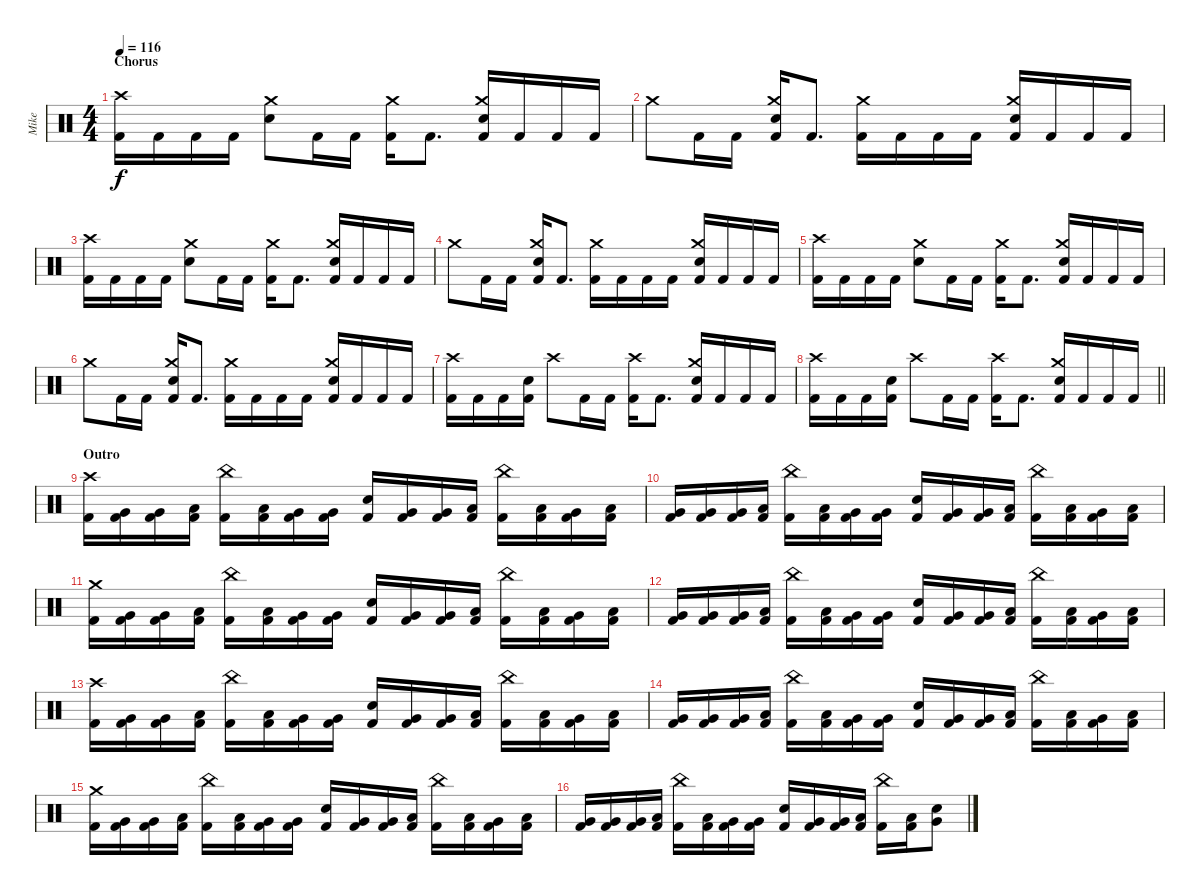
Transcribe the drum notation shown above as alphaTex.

\track ("Mike" "Mike") {instrument percussion}
\staff {score}
\articulation defaults
\ts (4 4)
\section ("" "Chorus")
\tempo 116
\clef neutral
\ks c
("Crash high (hit)" "Kick (hit) 2").16{dy f} "Kick (hit) 2".16 "Kick (hit) 2".16 "Kick (hit) 2".16 ("Crash medium (hit)" "Snare (hit) 2").8 "Kick (hit) 2".16 "Kick (hit) 2".16 ("Crash medium (hit)" "Kick (hit) 2").16 "Kick (hit) 2".8{d} ("Crash medium (hit)" "Snare (hit) 2" "Kick (hit) 2").16 "Kick (hit) 2".16 "Kick (hit) 2".16 "Kick (hit) 2".16 |
"Crash medium (hit)".8 "Kick (hit) 2".16 "Kick (hit) 2".16 ("Crash medium (hit)" "Snare (hit) 2" "Kick (hit) 2").16 "Kick (hit) 2".8{d} ("Crash medium (hit)" "Kick (hit) 2").16 "Kick (hit) 2".16 "Kick (hit) 2".16 "Kick (hit) 2".16 ("Crash medium (hit)" "Snare (hit) 2" "Kick (hit) 2").16 "Kick (hit) 2".16 "Kick (hit) 2".16 "Kick (hit) 2".16 |
("Crash high (hit)" "Kick (hit) 2").16 "Kick (hit) 2".16 "Kick (hit) 2".16 "Kick (hit) 2".16 ("Crash medium (hit)" "Snare (hit) 2").8 "Kick (hit) 2".16 "Kick (hit) 2".16 ("Crash medium (hit)" "Kick (hit) 2").16 "Kick (hit) 2".8{d} ("Crash medium (hit)" "Snare (hit) 2" "Kick (hit) 2").16 "Kick (hit) 2".16 "Kick (hit) 2".16 "Kick (hit) 2".16 |
"Crash medium (hit)".8 "Kick (hit) 2".16 "Kick (hit) 2".16 ("Crash medium (hit)" "Snare (hit) 2" "Kick (hit) 2").16 "Kick (hit) 2".8{d} ("Crash medium (hit)" "Kick (hit) 2").16 "Kick (hit) 2".16 "Kick (hit) 2".16 "Kick (hit) 2".16 ("Crash medium (hit)" "Snare (hit) 2" "Kick (hit) 2").16 "Kick (hit) 2".16 "Kick (hit) 2".16 "Kick (hit) 2".16 |
("Crash high (hit)" "Kick (hit) 2").16 "Kick (hit) 2".16 "Kick (hit) 2".16 "Kick (hit) 2".16 ("Crash medium (hit)" "Snare (hit) 2").8 "Kick (hit) 2".16 "Kick (hit) 2".16 ("Crash medium (hit)" "Kick (hit) 2").16 "Kick (hit) 2".8{d} ("Crash medium (hit)" "Snare (hit) 2" "Kick (hit) 2").16 "Kick (hit) 2".16 "Kick (hit) 2".16 "Kick (hit) 2".16 |
"Crash medium (hit)".8 "Kick (hit) 2".16 "Kick (hit) 2".16 ("Crash medium (hit)" "Snare (hit) 2" "Kick (hit) 2").16 "Kick (hit) 2".8{d} ("Crash medium (hit)" "Kick (hit) 2").16 "Kick (hit) 2".16 "Kick (hit) 2".16 "Kick (hit) 2".16 ("Crash medium (hit)" "Snare (hit) 2" "Kick (hit) 2").16 "Kick (hit) 2".16 "Kick (hit) 2".16 "Kick (hit) 2".16 |
("Crash high (hit)" "Kick (hit) 2").16 "Kick (hit) 2".16 "Kick (hit) 2".16 ("Snare (hit) 2" "Kick (hit) 2").16 "Crash high (hit)".8 "Kick (hit) 2".16 "Kick (hit) 2".16 ("Crash high (hit)" "Kick (hit) 2").16 "Kick (hit) 2".8{d} ("Crash medium (hit)" "Snare (hit) 2" "Kick (hit) 2").16 "Kick (hit) 2".16 "Kick (hit) 2".16 "Kick (hit) 2".16 |
\barLineRight lightlight
("Crash high (hit)" "Kick (hit) 2").16 "Kick (hit) 2".16 "Kick (hit) 2".16 ("Snare (hit) 2" "Kick (hit) 2").16 "Crash high (hit)".8 "Kick (hit) 2".16 "Kick (hit) 2".16 ("Crash high (hit)" "Kick (hit) 2").16 "Kick (hit) 2".8{d} ("Crash medium (hit)" "Snare (hit) 2" "Kick (hit) 2").16 "Kick (hit) 2".16 "Kick (hit) 2".16 "Kick (hit) 2".16 |
\section ("" "Outro")
("Crash high (hit)" "Kick (hit) 2").16 ("Very Low Tom (hit)" "Kick (hit) 2").16 ("Very Low Tom (hit)" "Kick (hit) 2").16 ("Low Tom (hit)" "Kick (hit) 2").16 ("China (hit)" "Kick (hit) 2").16 ("Low Tom (hit)" "Kick (hit) 2").16 ("Very Low Tom (hit)" "Kick (hit) 2").16 ("Very Low Tom (hit)" "Kick (hit) 2").16 ("Snare (hit) 2" "Kick (hit) 2").16 ("Very Low Tom (hit)" "Kick (hit) 2").16 ("Very Low Tom (hit)" "Kick (hit) 2").16 ("Low Tom (hit)" "Kick (hit) 2").16 ("China (hit)" "Kick (hit) 2").16 ("Low Tom (hit)" "Kick (hit) 2").16 ("Very Low Tom (hit)" "Kick (hit) 2").16 ("Low Tom (hit)" "Kick (hit) 2").16 |
("Very Low Tom (hit)" "Kick (hit) 2").16 ("Very Low Tom (hit)" "Kick (hit) 2").16 ("Very Low Tom (hit)" "Kick (hit) 2").16 ("Low Tom (hit)" "Kick (hit) 2").16 ("China (hit)" "Kick (hit) 2").16 ("Low Tom (hit)" "Kick (hit) 2").16 ("Very Low Tom (hit)" "Kick (hit) 2").16 ("Very Low Tom (hit)" "Kick (hit) 2").16 ("Snare (hit) 2" "Kick (hit) 2").16 ("Very Low Tom (hit)" "Kick (hit) 2").16 ("Very Low Tom (hit)" "Kick (hit) 2").16 ("Low Tom (hit)" "Kick (hit) 2").16 ("China (hit)" "Kick (hit) 2").16 ("Low Tom (hit)" "Kick (hit) 2").16 ("Very Low Tom (hit)" "Kick (hit) 2").16 ("Low Tom (hit)" "Kick (hit) 2").16 |
("Crash medium (hit)" "Kick (hit) 2").16 ("Very Low Tom (hit)" "Kick (hit) 2").16 ("Very Low Tom (hit)" "Kick (hit) 2").16 ("Low Tom (hit)" "Kick (hit) 2").16 ("China (hit)" "Kick (hit) 2").16 ("Low Tom (hit)" "Kick (hit) 2").16 ("Very Low Tom (hit)" "Kick (hit) 2").16 ("Very Low Tom (hit)" "Kick (hit) 2").16 ("Snare (hit) 2" "Kick (hit) 2").16 ("Very Low Tom (hit)" "Kick (hit) 2").16 ("Very Low Tom (hit)" "Kick (hit) 2").16 ("Low Tom (hit)" "Kick (hit) 2").16 ("China (hit)" "Kick (hit) 2").16 ("Low Tom (hit)" "Kick (hit) 2").16 ("Very Low Tom (hit)" "Kick (hit) 2").16 ("Low Tom (hit)" "Kick (hit) 2").16 |
("Very Low Tom (hit)" "Kick (hit) 2").16 ("Very Low Tom (hit)" "Kick (hit) 2").16 ("Very Low Tom (hit)" "Kick (hit) 2").16 ("Low Tom (hit)" "Kick (hit) 2").16 ("China (hit)" "Kick (hit) 2").16 ("Low Tom (hit)" "Kick (hit) 2").16 ("Very Low Tom (hit)" "Kick (hit) 2").16 ("Very Low Tom (hit)" "Kick (hit) 2").16 ("Snare (hit) 2" "Kick (hit) 2").16 ("Very Low Tom (hit)" "Kick (hit) 2").16 ("Very Low Tom (hit)" "Kick (hit) 2").16 ("Low Tom (hit)" "Kick (hit) 2").16 ("China (hit)" "Kick (hit) 2").16 ("Low Tom (hit)" "Kick (hit) 2").16 ("Very Low Tom (hit)" "Kick (hit) 2").16 ("Low Tom (hit)" "Kick (hit) 2").16 |
("Crash high (hit)" "Kick (hit) 2").16 ("Very Low Tom (hit)" "Kick (hit) 2").16 ("Very Low Tom (hit)" "Kick (hit) 2").16 ("Low Tom (hit)" "Kick (hit) 2").16 ("China (hit)" "Kick (hit) 2").16 ("Low Tom (hit)" "Kick (hit) 2").16 ("Very Low Tom (hit)" "Kick (hit) 2").16 ("Very Low Tom (hit)" "Kick (hit) 2").16 ("Snare (hit) 2" "Kick (hit) 2").16 ("Very Low Tom (hit)" "Kick (hit) 2").16 ("Very Low Tom (hit)" "Kick (hit) 2").16 ("Low Tom (hit)" "Kick (hit) 2").16 ("China (hit)" "Kick (hit) 2").16 ("Low Tom (hit)" "Kick (hit) 2").16 ("Very Low Tom (hit)" "Kick (hit) 2").16 ("Low Tom (hit)" "Kick (hit) 2").16 |
("Very Low Tom (hit)" "Kick (hit) 2").16 ("Very Low Tom (hit)" "Kick (hit) 2").16 ("Very Low Tom (hit)" "Kick (hit) 2").16 ("Low Tom (hit)" "Kick (hit) 2").16 ("China (hit)" "Kick (hit) 2").16 ("Low Tom (hit)" "Kick (hit) 2").16 ("Very Low Tom (hit)" "Kick (hit) 2").16 ("Very Low Tom (hit)" "Kick (hit) 2").16 ("Snare (hit) 2" "Kick (hit) 2").16 ("Very Low Tom (hit)" "Kick (hit) 2").16 ("Very Low Tom (hit)" "Kick (hit) 2").16 ("Low Tom (hit)" "Kick (hit) 2").16 ("China (hit)" "Kick (hit) 2").16 ("Low Tom (hit)" "Kick (hit) 2").16 ("Very Low Tom (hit)" "Kick (hit) 2").16 ("Low Tom (hit)" "Kick (hit) 2").16 |
("Crash medium (hit)" "Kick (hit) 2").16 ("Very Low Tom (hit)" "Kick (hit) 2").16 ("Very Low Tom (hit)" "Kick (hit) 2").16 ("Low Tom (hit)" "Kick (hit) 2").16 ("China (hit)" "Kick (hit) 2").16 ("Low Tom (hit)" "Kick (hit) 2").16 ("Very Low Tom (hit)" "Kick (hit) 2").16 ("Very Low Tom (hit)" "Kick (hit) 2").16 ("Snare (hit) 2" "Kick (hit) 2").16 ("Very Low Tom (hit)" "Kick (hit) 2").16 ("Very Low Tom (hit)" "Kick (hit) 2").16 ("Low Tom (hit)" "Kick (hit) 2").16 ("China (hit)" "Kick (hit) 2").16 ("Low Tom (hit)" "Kick (hit) 2").16 ("Very Low Tom (hit)" "Kick (hit) 2").16 ("Low Tom (hit)" "Kick (hit) 2").16 |
("Very Low Tom (hit)" "Kick (hit) 2").16 ("Very Low Tom (hit)" "Kick (hit) 2").16 ("Very Low Tom (hit)" "Kick (hit) 2").16 ("Low Tom (hit)" "Kick (hit) 2").16 ("China (hit)" "Kick (hit) 2").16 ("Low Tom (hit)" "Kick (hit) 2").16 ("Very Low Tom (hit)" "Kick (hit) 2").16 ("Very Low Tom (hit)" "Kick (hit) 2").16 ("Snare (hit) 2" "Kick (hit) 2").16 ("Very Low Tom (hit)" "Kick (hit) 2").16 ("Very Low Tom (hit)" "Kick (hit) 2").16 ("Low Tom (hit)" "Kick (hit) 2").16 ("China (hit)" "Kick (hit) 2").16 ("Low Tom (hit)" "Kick (hit) 2").16 ("Snare (hit) 2" "Very Low Tom (hit)").8
